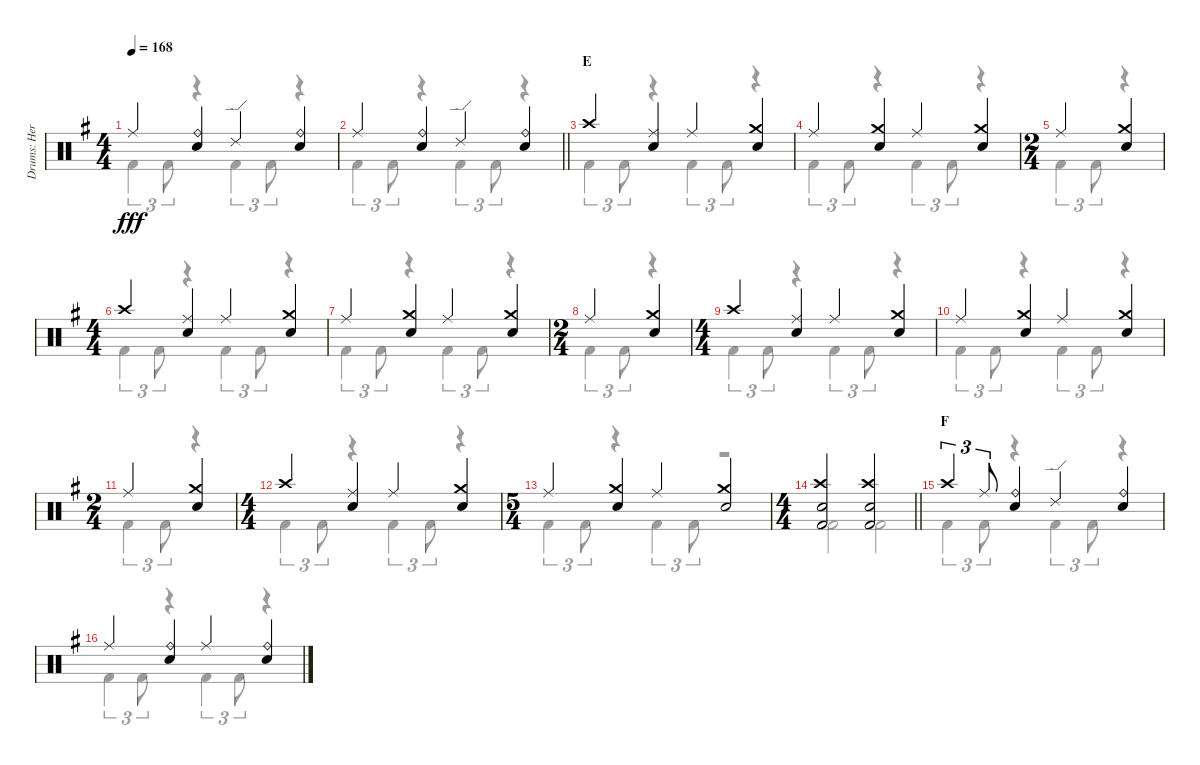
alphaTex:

\track ("Drums: Herman" "Drums: Her") {instrument percussion}
\staff {score}
\articulation defaults
\voice
\ts (4 4)
\tempo 168
\clef neutral
\ks g "Ride (middle)".4{dy fff}
("Ride (bell)" "Snare (hit) 2").4 "Ride (edge) 2".4 ("Ride (bell)" "Snare (hit) 2").4 |
\barLineRight lightlight "Ride (middle)".4
("Ride (bell)" "Snare (hit) 2").4 "Ride (edge) 2".4 ("Ride (bell)" "Snare (hit) 2").4 |
\section ("" "E")
"Crash high (hit)".4 ("Ride (middle)" "Snare (hit) 2").4 "Ride (middle)".4 ("Crash medium (hit)" "Snare (hit) 2").4 |
"Ride (middle)".4 ("Crash medium (hit)" "Snare (hit) 2").4 "Ride (middle)".4 ("Crash medium (hit)" "Snare (hit) 2").4 |
\ts (2 4)
"Ride (middle)".4 ("Crash medium (hit)" "Snare (hit) 2").4 |
\ts (4 4)
"Crash high (hit)".4 ("Ride (middle)" "Snare (hit) 2").4 "Ride (middle)".4 ("Crash medium (hit)" "Snare (hit) 2").4 |
"Ride (middle)".4 ("Crash medium (hit)" "Snare (hit) 2").4 "Ride (middle)".4 ("Crash medium (hit)" "Snare (hit) 2").4 |
\ts (2 4)
"Ride (middle)".4 ("Crash medium (hit)" "Snare (hit) 2").4 |
\ts (4 4)
"Crash high (hit)".4 ("Ride (middle)" "Snare (hit) 2").4 "Ride (middle)".4 ("Crash medium (hit)" "Snare (hit) 2").4 |
"Ride (middle)".4 ("Crash medium (hit)" "Snare (hit) 2").4 "Ride (middle)".4 ("Crash medium (hit)" "Snare (hit) 2").4 |
\ts (2 4)
"Ride (middle)".4 ("Crash medium (hit)" "Snare (hit) 2").4 |
\ts (4 4)
"Crash high (hit)".4 ("Ride (middle)" "Snare (hit) 2").4 "Ride (middle)".4 ("Crash medium (hit)" "Snare (hit) 2").4 |
\ts (5 4)
"Ride (middle)".4 ("Crash medium (hit)" "Snare (hit) 2").4 "Ride (middle)".4 ("Crash medium (hit)" "Snare (hit) 2").2 |
\ts (4 4)
\barLineRight lightlight
("Crash high (hit)" "Snare (hit) 2" "Kick (hit) 2").2 ("Crash high (hit)" "Snare (hit) 2" "Kick (hit) 2").2 |
\section ("" "F")
"Crash high (hit)".4{tu (3 2)} "Ride (middle)".8{tu (3 2)} ("Ride (bell)" "Snare (hit) 2").4 "Ride (edge) 2".4 ("Ride (bell)" "Snare (hit) 2").4 |
"Ride (middle)".4 ("Ride (bell)" "Snare (hit) 2").4 "Ride (middle)".4 ("Ride (bell)" "Snare (hit) 2").4
\voice
\clef neutral
\ottava regular
\simile none
\ks g "Kick (hit) 2".4{tu (3 2) dy fff} "Kick (hit) 2".8{tu (3 2)}
r.4 "Kick (hit) 2".4{tu (3 2)} "Kick (hit) 2".8{tu (3 2)} r.4 |
\barLineRight lightlight "Kick (hit) 2".4{tu (3 2)} "Kick (hit) 2".8{tu (3 2)}
r.4 "Kick (hit) 2".4{tu (3 2)} "Kick (hit) 2".8{tu (3 2)} r.4 |
"Kick (hit) 2".4{tu (3 2)} "Kick (hit) 2".8{tu (3 2)} r.4 "Kick (hit) 2".4{tu (3 2)} "Kick (hit) 2".8{tu (3 2)} r.4 |
"Kick (hit) 2".4{tu (3 2)} "Kick (hit) 2".8{tu (3 2)} r.4 "Kick (hit) 2".4{tu (3 2)} "Kick (hit) 2".8{tu (3 2)} r.4 |
"Kick (hit) 2".4{tu (3 2)} "Kick (hit) 2".8{tu (3 2)} r.4 |
"Kick (hit) 2".4{tu (3 2)} "Kick (hit) 2".8{tu (3 2)} r.4 "Kick (hit) 2".4{tu (3 2)} "Kick (hit) 2".8{tu (3 2)} r.4 |
"Kick (hit) 2".4{tu (3 2)} "Kick (hit) 2".8{tu (3 2)} r.4 "Kick (hit) 2".4{tu (3 2)} "Kick (hit) 2".8{tu (3 2)} r.4 |
"Kick (hit) 2".4{tu (3 2)} "Kick (hit) 2".8{tu (3 2)} r.4 |
"Kick (hit) 2".4{tu (3 2)} "Kick (hit) 2".8{tu (3 2)} r.4 "Kick (hit) 2".4{tu (3 2)} "Kick (hit) 2".8{tu (3 2)} r.4 |
"Kick (hit) 2".4{tu (3 2)} "Kick (hit) 2".8{tu (3 2)} r.4 "Kick (hit) 2".4{tu (3 2)} "Kick (hit) 2".8{tu (3 2)} r.4 |
"Kick (hit) 2".4{tu (3 2)} "Kick (hit) 2".8{tu (3 2)} r.4 |
"Kick (hit) 2".4{tu (3 2)} "Kick (hit) 2".8{tu (3 2)} r.4 "Kick (hit) 2".4{tu (3 2)} "Kick (hit) 2".8{tu (3 2)} r.4 |
"Kick (hit) 2".4{tu (3 2)} "Kick (hit) 2".8{tu (3 2)} r.4 "Kick (hit) 2".4{tu (3 2)} "Kick (hit) 2".8{tu (3 2)} r.2 |
\barLineRight lightlight "Kick (hit) 2".2 "Kick (hit) 2".2
|
"Kick (hit) 2".4{tu (3 2)} "Kick (hit) 2".8{tu (3 2)} r.4 "Kick (hit) 2".4{tu (3 2)} "Kick (hit) 2".8{tu (3 2)} r.4 |
"Kick (hit) 2".4{tu (3 2)} "Kick (hit) 2".8{tu (3 2)} r.4 "Kick (hit) 2".4{tu (3 2)} "Kick (hit) 2".8{tu (3 2)} r.4
